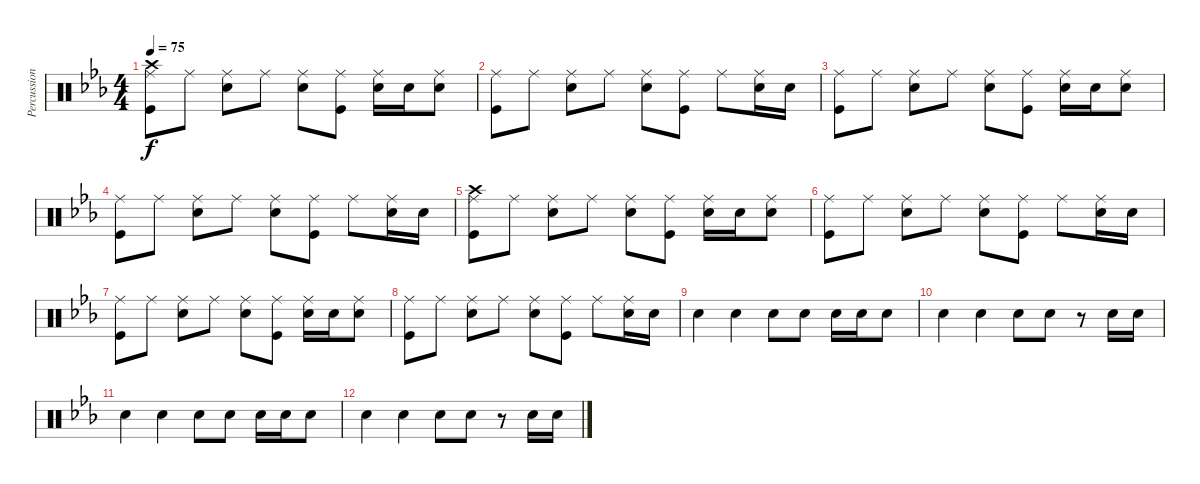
\track ("Percussion" "Percussion") {instrument percussion}
\staff {score}
\articulation defaults
\ts (4 4)
\tempo 75
\clef neutral
\ks cminor
("Crash high (hit)" "Ride (middle)" "Kick (hit)").8{dy f} "Ride (middle)".8 ("Ride (middle)" "Snare (hit) 2").8 "Ride (middle)".8 ("Ride (middle)" "Snare (hit) 2").8 ("Ride (middle)" "Kick (hit)").8 ("Ride (middle)" "Snare (hit) 2").16 "Snare (hit) 2".16 ("Ride (middle)" "Snare (hit) 2").8 |
("Ride (middle)" "Kick (hit)").8 "Ride (middle)".8 ("Ride (middle)" "Snare (hit) 2").8 "Ride (middle)".8 ("Ride (middle)" "Snare (hit) 2").8 ("Ride (middle)" "Kick (hit)").8 "Ride (middle)".8 ("Ride (middle)" "Snare (hit) 2").16 "Snare (hit) 2".16 |
("Ride (middle)" "Kick (hit)").8 "Ride (middle)".8 ("Ride (middle)" "Snare (hit) 2").8 "Ride (middle)".8 ("Ride (middle)" "Snare (hit) 2").8 ("Ride (middle)" "Kick (hit)").8 ("Ride (middle)" "Snare (hit) 2").16 "Snare (hit) 2".16 ("Ride (middle)" "Snare (hit) 2").8 |
("Ride (middle)" "Kick (hit)").8 "Ride (middle)".8 ("Ride (middle)" "Snare (hit) 2").8 "Ride (middle)".8 ("Ride (middle)" "Snare (hit) 2").8 ("Ride (middle)" "Kick (hit)").8 "Ride (middle)".8 ("Ride (middle)" "Snare (hit) 2").16 "Snare (hit) 2".16 |
("Crash high (hit)" "Ride (middle)" "Kick (hit)").8 "Ride (middle)".8 ("Ride (middle)" "Snare (hit) 2").8 "Ride (middle)".8 ("Ride (middle)" "Snare (hit) 2").8 ("Ride (middle)" "Kick (hit)").8 ("Ride (middle)" "Snare (hit) 2").16 "Snare (hit) 2".16 ("Ride (middle)" "Snare (hit) 2").8 |
("Ride (middle)" "Kick (hit)").8 "Ride (middle)".8 ("Ride (middle)" "Snare (hit) 2").8 "Ride (middle)".8 ("Ride (middle)" "Snare (hit) 2").8 ("Ride (middle)" "Kick (hit)").8 "Ride (middle)".8 ("Ride (middle)" "Snare (hit) 2").16 "Snare (hit) 2".16 |
("Ride (middle)" "Kick (hit)").8 "Ride (middle)".8 ("Ride (middle)" "Snare (hit) 2").8 "Ride (middle)".8 ("Ride (middle)" "Snare (hit) 2").8 ("Ride (middle)" "Kick (hit)").8 ("Ride (middle)" "Snare (hit) 2").16 "Snare (hit) 2".16 ("Ride (middle)" "Snare (hit) 2").8 |
("Ride (middle)" "Kick (hit)").8 "Ride (middle)".8 ("Ride (middle)" "Snare (hit) 2").8 "Ride (middle)".8 ("Ride (middle)" "Snare (hit) 2").8 ("Ride (middle)" "Kick (hit)").8 "Ride (middle)".8 ("Ride (middle)" "Snare (hit) 2").16 "Snare (hit) 2".16 |
"Snare (hit) 2".4 "Snare (hit) 2".4 "Snare (hit) 2".8 "Snare (hit) 2".8 "Snare (hit) 2".16 "Snare (hit) 2".16 "Snare (hit) 2".8 |
"Snare (hit) 2".4 "Snare (hit) 2".4 "Snare (hit) 2".8 "Snare (hit) 2".8 r.8 "Snare (hit) 2".16 "Snare (hit) 2".16 |
"Snare (hit) 2".4 "Snare (hit) 2".4 "Snare (hit) 2".8 "Snare (hit) 2".8 "Snare (hit) 2".16 "Snare (hit) 2".16 "Snare (hit) 2".8 |
"Snare (hit) 2".4 "Snare (hit) 2".4 "Snare (hit) 2".8 "Snare (hit) 2".8 r.8 "Snare (hit) 2".16 "Snare (hit) 2".16
